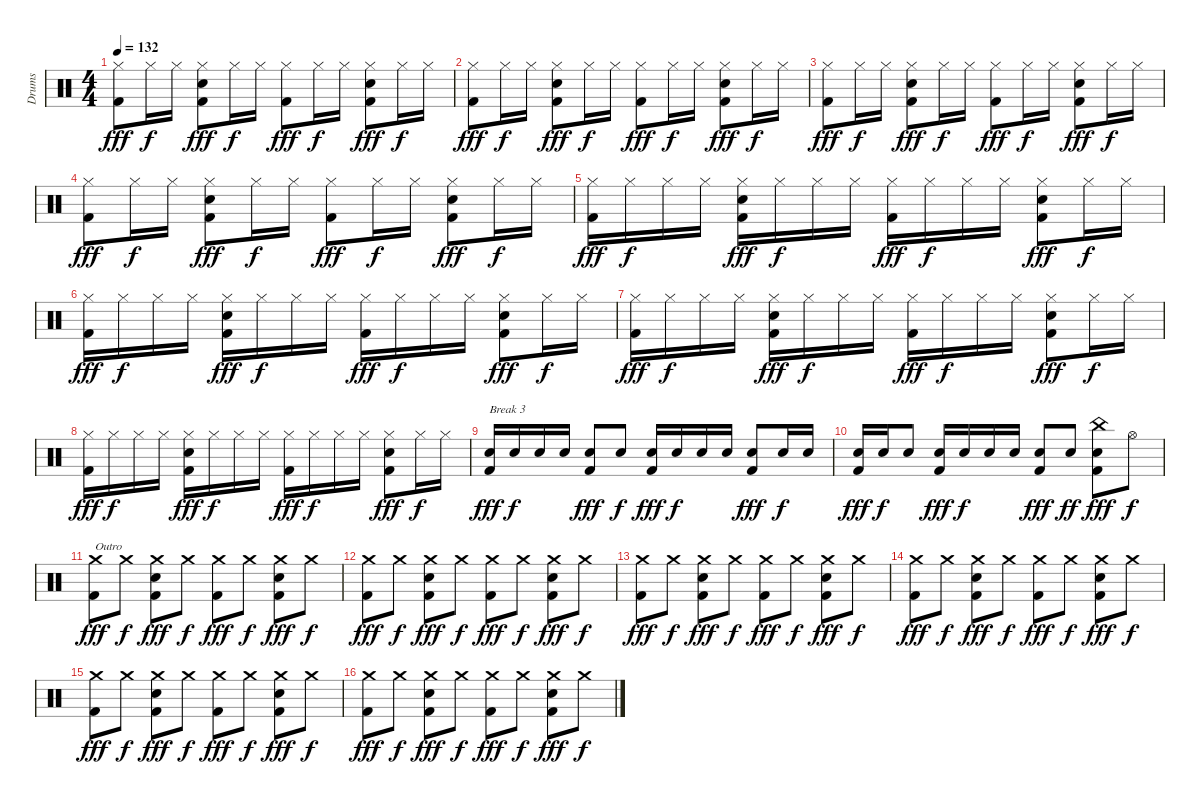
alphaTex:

\track ("Drums" "Drums") {instrument percussion}
\staff {score}
\articulation defaults
\ts (4 4)
\tempo 132
\clef neutral
\ks c
("Hi-Hat (closed)" "Kick (hit) 2").8{dy fff} "Hi-Hat (closed)".16{dy f} "Hi-Hat (closed)".16 ("Hi-Hat (closed)" "Snare (hit) 2" "Kick (hit) 2").8{dy fff} "Hi-Hat (closed)".16{dy f} "Hi-Hat (closed)".16 ("Hi-Hat (closed)" "Kick (hit) 2").8{dy fff} "Hi-Hat (closed)".16{dy f} "Hi-Hat (closed)".16 ("Hi-Hat (closed)" "Snare (hit) 2" "Kick (hit) 2").8{dy fff} "Hi-Hat (closed)".16{dy f} "Hi-Hat (closed)".16 |
("Hi-Hat (closed)" "Kick (hit) 2").8{dy fff} "Hi-Hat (closed)".16{dy f} "Hi-Hat (closed)".16 ("Hi-Hat (closed)" "Snare (hit) 2" "Kick (hit) 2").8{dy fff} "Hi-Hat (closed)".16{dy f} "Hi-Hat (closed)".16 ("Hi-Hat (closed)" "Kick (hit) 2").8{dy fff} "Hi-Hat (closed)".16{dy f} "Hi-Hat (closed)".16 ("Hi-Hat (closed)" "Snare (hit) 2" "Kick (hit) 2").8{dy fff} "Hi-Hat (closed)".16{dy f} "Hi-Hat (closed)".16 |
("Hi-Hat (closed)" "Kick (hit) 2").8{dy fff} "Hi-Hat (closed)".16{dy f} "Hi-Hat (closed)".16 ("Hi-Hat (closed)" "Snare (hit) 2" "Kick (hit) 2").8{dy fff} "Hi-Hat (closed)".16{dy f} "Hi-Hat (closed)".16 ("Hi-Hat (closed)" "Kick (hit) 2").8{dy fff} "Hi-Hat (closed)".16{dy f} "Hi-Hat (closed)".16 ("Hi-Hat (closed)" "Snare (hit) 2" "Kick (hit) 2").8{dy fff} "Hi-Hat (closed)".16{dy f} "Hi-Hat (closed)".16 |
("Hi-Hat (closed)" "Kick (hit) 2").8{dy fff} "Hi-Hat (closed)".16{dy f} "Hi-Hat (closed)".16 ("Hi-Hat (closed)" "Snare (hit) 2" "Kick (hit) 2").8{dy fff} "Hi-Hat (closed)".16{dy f} "Hi-Hat (closed)".16 ("Hi-Hat (closed)" "Kick (hit) 2").8{dy fff} "Hi-Hat (closed)".16{dy f} "Hi-Hat (closed)".16 ("Hi-Hat (closed)" "Snare (hit) 2" "Kick (hit) 2").8{dy fff} "Hi-Hat (closed)".16{dy f} "Hi-Hat (closed)".16 |
("Hi-Hat (closed)" "Kick (hit) 2").16{dy fff} "Hi-Hat (closed)".16{dy f} "Hi-Hat (closed)".16 "Hi-Hat (closed)".16 ("Hi-Hat (closed)" "Snare (hit) 2" "Kick (hit) 2").16{dy fff} "Hi-Hat (closed)".16{dy f} "Hi-Hat (closed)".16 "Hi-Hat (closed)".16 ("Hi-Hat (closed)" "Kick (hit) 2").16{dy fff} "Hi-Hat (closed)".16{dy f} "Hi-Hat (closed)".16 "Hi-Hat (closed)".16 ("Hi-Hat (closed)" "Snare (hit) 2" "Kick (hit) 2").8{dy fff} "Hi-Hat (closed)".16{dy f} "Hi-Hat (closed)".16 |
("Hi-Hat (closed)" "Kick (hit) 2").16{dy fff} "Hi-Hat (closed)".16{dy f} "Hi-Hat (closed)".16 "Hi-Hat (closed)".16 ("Hi-Hat (closed)" "Snare (hit) 2" "Kick (hit) 2").16{dy fff} "Hi-Hat (closed)".16{dy f} "Hi-Hat (closed)".16 "Hi-Hat (closed)".16 ("Hi-Hat (closed)" "Kick (hit) 2").16{dy fff} "Hi-Hat (closed)".16{dy f} "Hi-Hat (closed)".16 "Hi-Hat (closed)".16 ("Hi-Hat (closed)" "Snare (hit) 2" "Kick (hit) 2").8{dy fff} "Hi-Hat (closed)".16{dy f} "Hi-Hat (closed)".16 |
("Hi-Hat (closed)" "Kick (hit) 2").16{dy fff} "Hi-Hat (closed)".16{dy f} "Hi-Hat (closed)".16 "Hi-Hat (closed)".16 ("Hi-Hat (closed)" "Snare (hit) 2" "Kick (hit) 2").16{dy fff} "Hi-Hat (closed)".16{dy f} "Hi-Hat (closed)".16 "Hi-Hat (closed)".16 ("Hi-Hat (closed)" "Kick (hit) 2").16{dy fff} "Hi-Hat (closed)".16{dy f} "Hi-Hat (closed)".16 "Hi-Hat (closed)".16 ("Hi-Hat (closed)" "Snare (hit) 2" "Kick (hit) 2").8{dy fff} "Hi-Hat (closed)".16{dy f} "Hi-Hat (closed)".16 |
("Hi-Hat (closed)" "Kick (hit) 2").16{dy fff} "Hi-Hat (closed)".16{dy f} "Hi-Hat (closed)".16 "Hi-Hat (closed)".16 ("Hi-Hat (closed)" "Snare (hit) 2" "Kick (hit) 2").16{dy fff} "Hi-Hat (closed)".16{dy f} "Hi-Hat (closed)".16 "Hi-Hat (closed)".16 ("Hi-Hat (closed)" "Kick (hit) 2").16{dy fff} "Hi-Hat (closed)".16{dy f} "Hi-Hat (closed)".16 "Hi-Hat (closed)".16 ("Hi-Hat (closed)" "Snare (hit) 2" "Kick (hit) 2").8{dy fff} "Hi-Hat (closed)".16{dy f} "Hi-Hat (closed)".16 |
("Snare (hit) 2" "Kick (hit) 2").16{txt "Break 3" dy fff} "Snare (hit) 2".16{dy f} "Snare (hit) 2".16 "Snare (hit) 2".16 ("Snare (hit) 2" "Kick (hit) 2").8{dy fff} "Snare (hit) 2".8{dy f} ("Snare (hit) 2" "Kick (hit) 2").16{dy fff} "Snare (hit) 2".16{dy f} "Snare (hit) 2".16 "Snare (hit) 2".16 ("Snare (hit) 2" "Kick (hit) 2").8{dy fff} "Snare (hit) 2".16{dy f} "Snare (hit) 2".16 |
("Snare (hit) 2" "Kick (hit) 2").16{dy fff} "Snare (hit) 2".16{dy f} "Snare (hit) 2".8 ("Snare (hit) 2" "Kick (hit) 2").16{dy fff} "Snare (hit) 2".16{dy f} "Snare (hit) 2".16 "Snare (hit) 2".16 ("Snare (hit) 2" "Kick (hit) 2").8{dy fff} "Snare (hit) 2".8{dy ff} ("China (hit)" "Snare (hit) 2" "Kick (hit) 2").8{dy fff} "Hi-Hat (open)".8{dy f} |
("Crash medium (hit)" "Kick (hit) 2").8{txt "Outro" dy fff} "Crash medium (hit)".8{dy f} ("Crash medium (hit)" "Snare (hit) 2" "Kick (hit) 2").8{dy fff} "Crash medium (hit)".8{dy f} ("Crash medium (hit)" "Kick (hit) 2").8{dy fff} "Crash medium (hit)".8{dy f} ("Crash medium (hit)" "Snare (hit) 2" "Kick (hit) 2").8{dy fff} "Crash medium (hit)".8{dy f} |
("Crash medium (hit)" "Kick (hit) 2").8{dy fff} "Crash medium (hit)".8{dy f} ("Crash medium (hit)" "Snare (hit) 2" "Kick (hit) 2").8{dy fff} "Crash medium (hit)".8{dy f} ("Crash medium (hit)" "Kick (hit) 2").8{dy fff} "Crash medium (hit)".8{dy f} ("Crash medium (hit)" "Snare (hit) 2" "Kick (hit) 2").8{dy fff} "Crash medium (hit)".8{dy f} |
("Crash medium (hit)" "Kick (hit) 2").8{dy fff} "Crash medium (hit)".8{dy f} ("Crash medium (hit)" "Snare (hit) 2" "Kick (hit) 2").8{dy fff} "Crash medium (hit)".8{dy f} ("Crash medium (hit)" "Kick (hit) 2").8{dy fff} "Crash medium (hit)".8{dy f} ("Crash medium (hit)" "Snare (hit) 2" "Kick (hit) 2").8{dy fff} "Crash medium (hit)".8{dy f} |
("Crash medium (hit)" "Kick (hit) 2").8{dy fff} "Crash medium (hit)".8{dy f} ("Crash medium (hit)" "Snare (hit) 2" "Kick (hit) 2").8{dy fff} "Crash medium (hit)".8{dy f} ("Crash medium (hit)" "Kick (hit) 2").8{dy fff} "Crash medium (hit)".8{dy f} ("Crash medium (hit)" "Snare (hit) 2" "Kick (hit) 2").8{dy fff} "Crash medium (hit)".8{dy f} |
("Crash medium (hit)" "Kick (hit) 2").8{dy fff} "Crash medium (hit)".8{dy f} ("Crash medium (hit)" "Snare (hit) 2" "Kick (hit) 2").8{dy fff} "Crash medium (hit)".8{dy f} ("Crash medium (hit)" "Kick (hit) 2").8{dy fff} "Crash medium (hit)".8{dy f} ("Crash medium (hit)" "Snare (hit) 2" "Kick (hit) 2").8{dy fff} "Crash medium (hit)".8{dy f} |
("Crash medium (hit)" "Kick (hit) 2").8{dy fff} "Crash medium (hit)".8{dy f} ("Crash medium (hit)" "Snare (hit) 2" "Kick (hit) 2").8{dy fff} "Crash medium (hit)".8{dy f} ("Crash medium (hit)" "Kick (hit) 2").8{dy fff} "Crash medium (hit)".8{dy f} ("Crash medium (hit)" "Snare (hit) 2" "Kick (hit) 2").8{dy fff} "Crash medium (hit)".8{dy f}
